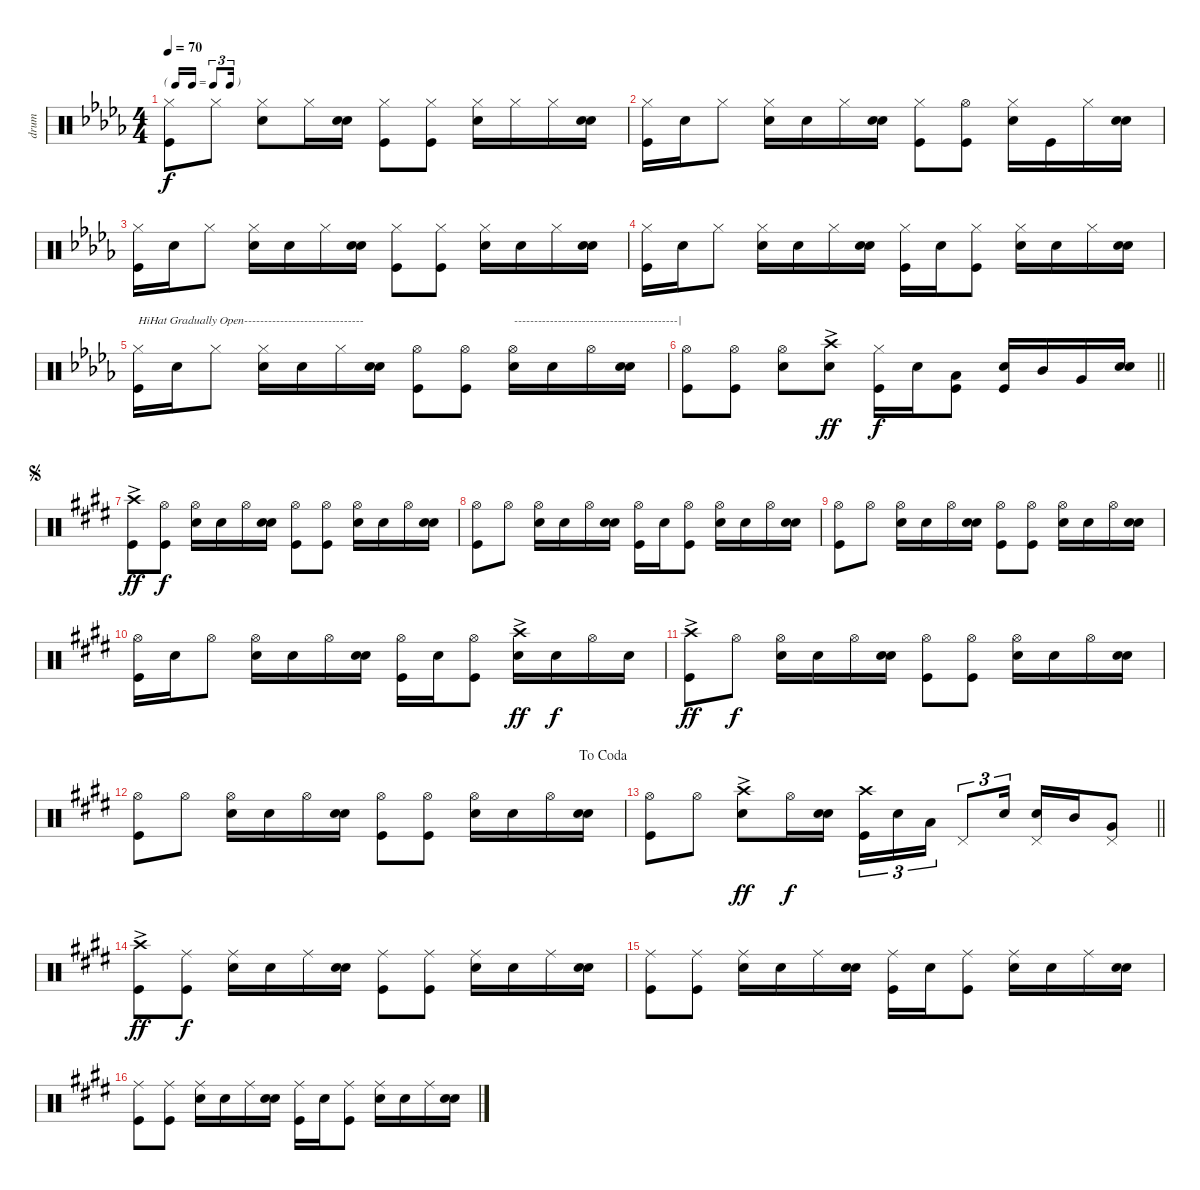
\track ("drum" "drum") {instrument percussion}
\staff {score}
\articulation defaults
\ts (4 4)
\tf triplet16th
\tempo 70
\clef neutral
\ks db
("Hi-Hat (closed)" "Kick (hit)").8{dy f} "Hi-Hat (closed)".8 ("Hi-Hat (closed)" "Snare (hit) 2").8 "Hi-Hat (closed)".16 ("Snare (hit) 2" "Snare (hit) 2").16 ("Hi-Hat (closed)" "Kick (hit)").8 ("Hi-Hat (closed)" "Kick (hit)").8 ("Hi-Hat (closed)" "Snare (hit) 2").16 "Hi-Hat (closed)".16 "Hi-Hat (closed)".16 ("Snare (hit) 2" "Snare (hit) 2").16 |
("Hi-Hat (closed)" "Kick (hit)").16 "Snare (hit) 2".16 "Hi-Hat (closed)".8 ("Hi-Hat (closed)" "Snare (hit) 2").16 "Snare (hit) 2".16 "Hi-Hat (closed)".16 ("Snare (hit) 2" "Snare (hit) 2").16 ("Hi-Hat (closed)" "Kick (hit)").8 ("Hi-Hat (open)" "Kick (hit)").8 ("Hi-Hat (closed)" "Snare (hit) 2").16 "Kick (hit)".16 "Hi-Hat (closed)".16 ("Snare (hit) 2" "Snare (hit) 2").16 |
("Hi-Hat (closed)" "Kick (hit)").16 "Snare (hit) 2".16 "Hi-Hat (closed)".8 ("Hi-Hat (closed)" "Snare (hit) 2").16 "Snare (hit) 2".16 "Hi-Hat (closed)".16 ("Snare (hit) 2" "Snare (hit) 2").16 ("Hi-Hat (closed)" "Kick (hit)").8 ("Hi-Hat (closed)" "Kick (hit)").8 ("Hi-Hat (closed)" "Snare (hit) 2").16 "Snare (hit) 2".16 "Hi-Hat (closed)".16 ("Snare (hit) 2" "Snare (hit) 2").16 |
("Hi-Hat (closed)" "Kick (hit)").16 "Snare (hit) 2".16 "Hi-Hat (closed)".8 ("Hi-Hat (closed)" "Snare (hit) 2").16 "Snare (hit) 2".16 "Hi-Hat (closed)".16 ("Snare (hit) 2" "Snare (hit) 2").16 ("Hi-Hat (closed)" "Kick (hit)").16 "Snare (hit) 2".16 ("Hi-Hat (closed)" "Kick (hit)").8 ("Hi-Hat (closed)" "Snare (hit) 2").16 "Snare (hit) 2".16 "Hi-Hat (closed)".16 ("Snare (hit) 2" "Snare (hit) 2").16 |
("Hi-Hat (closed)" "Kick (hit)").16{txt "HiHat Gradually Open------------------------------"} "Snare (hit) 2".16 "Hi-Hat (closed)".8 ("Hi-Hat (closed)" "Snare (hit) 2").16 "Snare (hit) 2".16 "Hi-Hat (closed)".16 ("Snare (hit) 2" "Snare (hit) 2").16 ("Hi-Hat (open)" "Kick (hit)").8 ("Hi-Hat (open)" "Kick (hit)").8 ("Hi-Hat (open)" "Snare (hit) 2").16{txt "-----------------------------------------|"} "Snare (hit) 2".16 "Hi-Hat (open)".16 ("Snare (hit) 2" "Snare (hit) 2").16 |
\barLineRight lightlight
("Hi-Hat (open)" "Kick (hit)").8 ("Hi-Hat (open)" "Kick (hit)").8 ("Hi-Hat (open)" "Snare (hit) 2").8 ("Crash high (hit)"{ac} "Snare (hit) 2").8{dy ff} ("Hi-Hat (closed)" "Kick (hit)").16{dy f} "Snare (hit) 2".16 ("Low Tom (hit)" "Kick (hit)").8 ("Snare (hit) 2" "Kick (hit)").16 "Mid Tom (hit)".16 "Very Low Tom (hit)".16 ("Snare (hit) 2" "Snare (hit) 2").16 |
\section ("" "")
\jump segno
\ks e
("Crash high (hit)"{ac} "Kick (hit)").8{dy ff} ("Hi-Hat (open)" "Kick (hit)").8{dy f} ("Hi-Hat (open)" "Snare (hit) 2").16 "Snare (hit) 2".16 "Hi-Hat (open)".16 ("Snare (hit) 2" "Snare (hit) 2").16 ("Hi-Hat (open)" "Kick (hit)").8 ("Hi-Hat (open)" "Kick (hit)").8 ("Hi-Hat (open)" "Snare (hit) 2").16 "Snare (hit) 2".16 "Hi-Hat (open)".16 ("Snare (hit) 2" "Snare (hit) 2").16 |
("Hi-Hat (open)" "Kick (hit)").8 "Hi-Hat (open)".8 ("Hi-Hat (open)" "Snare (hit) 2").16 "Snare (hit) 2".16 "Hi-Hat (open)".16 ("Snare (hit) 2" "Snare (hit) 2").16 ("Hi-Hat (open)" "Kick (hit)").16 "Snare (hit) 2".16 ("Hi-Hat (open)" "Kick (hit)").8 ("Hi-Hat (open)" "Snare (hit) 2").16 "Snare (hit) 2".16 "Hi-Hat (open)".16 ("Snare (hit) 2" "Snare (hit) 2").16 |
("Hi-Hat (open)" "Kick (hit)").8 "Hi-Hat (open)".8 ("Hi-Hat (open)" "Snare (hit) 2").16 "Snare (hit) 2".16 "Hi-Hat (open)".16 ("Snare (hit) 2" "Snare (hit) 2").16 ("Hi-Hat (open)" "Kick (hit)").8 ("Hi-Hat (open)" "Kick (hit)").8 ("Hi-Hat (open)" "Snare (hit) 2").16 "Snare (hit) 2".16 "Hi-Hat (open)".16 ("Snare (hit) 2" "Snare (hit) 2").16 |
("Hi-Hat (open)" "Kick (hit)").16 "Snare (hit) 2".16 "Hi-Hat (open)".8 ("Hi-Hat (open)" "Snare (hit) 2").16 "Snare (hit) 2".16 "Hi-Hat (open)".16 ("Snare (hit) 2" "Snare (hit) 2").16 ("Hi-Hat (open)" "Kick (hit)").16 "Snare (hit) 2".16 ("Hi-Hat (open)" "Kick (hit)").8 ("Crash high (hit)"{ac} "Snare (hit) 2").16{dy ff} "Snare (hit) 2".16{dy f} "Hi-Hat (open)".16 "Snare (hit) 2".16 |
("Crash high (hit)"{ac} "Kick (hit)").8{dy ff} "Hi-Hat (open)".8{dy f} ("Hi-Hat (open)" "Snare (hit) 2").16 "Snare (hit) 2".16 "Hi-Hat (open)".16 ("Snare (hit) 2" "Snare (hit) 2").16 ("Hi-Hat (open)" "Kick (hit)").8 ("Hi-Hat (open)" "Kick (hit)").8 ("Hi-Hat (open)" "Snare (hit) 2").16 "Snare (hit) 2".16 "Hi-Hat (open)".16 ("Snare (hit) 2" "Snare (hit) 2").16 |
\jump dacoda
("Hi-Hat (open)" "Kick (hit)").8 "Hi-Hat (open)".8 ("Hi-Hat (open)" "Snare (hit) 2").16 "Snare (hit) 2".16 "Hi-Hat (open)".16 ("Snare (hit) 2" "Snare (hit) 2").16 ("Hi-Hat (open)" "Kick (hit)").8 ("Hi-Hat (open)" "Kick (hit)").8 ("Hi-Hat (open)" "Snare (hit) 2").16 "Snare (hit) 2".16 "Hi-Hat (open)".16 ("Snare (hit) 2" "Snare (hit) 2").16 |
\barLineRight lightlight
("Hi-Hat (open)" "Kick (hit)").8 "Hi-Hat (open)".8 ("Crash high (hit)"{ac} "Snare (hit) 2").8{dy ff} "Hi-Hat (open)".16{dy f} ("Snare (hit) 2" "Snare (hit) 2").16 ("Crash high (hit)" "Kick (hit)").16{tu (3 2)} "Snare (hit) 2".16{tu (3 2)} "Low Tom (hit)".16{tu (3 2)} "Pedal Hi-Hat (hit)".8{tu (3 2)} "Snare (hit) 2".16{tu (3 2)} ("Snare (hit) 2" "Pedal Hi-Hat (hit)").16 "Mid Tom (hit)".16 ("Very Low Tom (hit)" "Pedal Hi-Hat (hit)").8 |
\section ("" "")
("Crash high (hit)"{ac} "Kick (hit)").8{dy ff} ("Ride (middle)" "Kick (hit)").8{dy f} ("Ride (middle)" "Snare (hit) 2").16 "Snare (hit) 2".16 "Ride (middle)".16 ("Snare (hit) 2" "Snare (hit) 2").16 ("Ride (middle)" "Kick (hit)").8 ("Ride (middle)" "Kick (hit)").8 ("Ride (middle)" "Snare (hit) 2").16 "Snare (hit) 2".16 "Ride (middle)".16 ("Snare (hit) 2" "Snare (hit) 2").16 |
("Ride (middle)" "Kick (hit)").8 ("Ride (middle)" "Kick (hit)").8 ("Ride (middle)" "Snare (hit) 2").16 "Snare (hit) 2".16 "Ride (middle)".16 ("Snare (hit) 2" "Snare (hit) 2").16 ("Ride (middle)" "Kick (hit)").16 "Snare (hit) 2".16 ("Ride (middle)" "Kick (hit)").8 ("Ride (middle)" "Snare (hit) 2").16 "Snare (hit) 2".16 "Ride (middle)".16 ("Snare (hit) 2" "Snare (hit) 2").16 |
("Ride (middle)" "Kick (hit)").8 ("Ride (middle)" "Kick (hit)").8 ("Ride (middle)" "Snare (hit) 2").16 "Snare (hit) 2".16 "Ride (middle)".16 ("Snare (hit) 2" "Snare (hit) 2").16 ("Ride (middle)" "Kick (hit)").16 "Snare (hit) 2".16 ("Ride (middle)" "Kick (hit)").8 ("Ride (middle)" "Snare (hit) 2").16 "Snare (hit) 2".16 "Ride (middle)".16 ("Snare (hit) 2" "Snare (hit) 2").16
